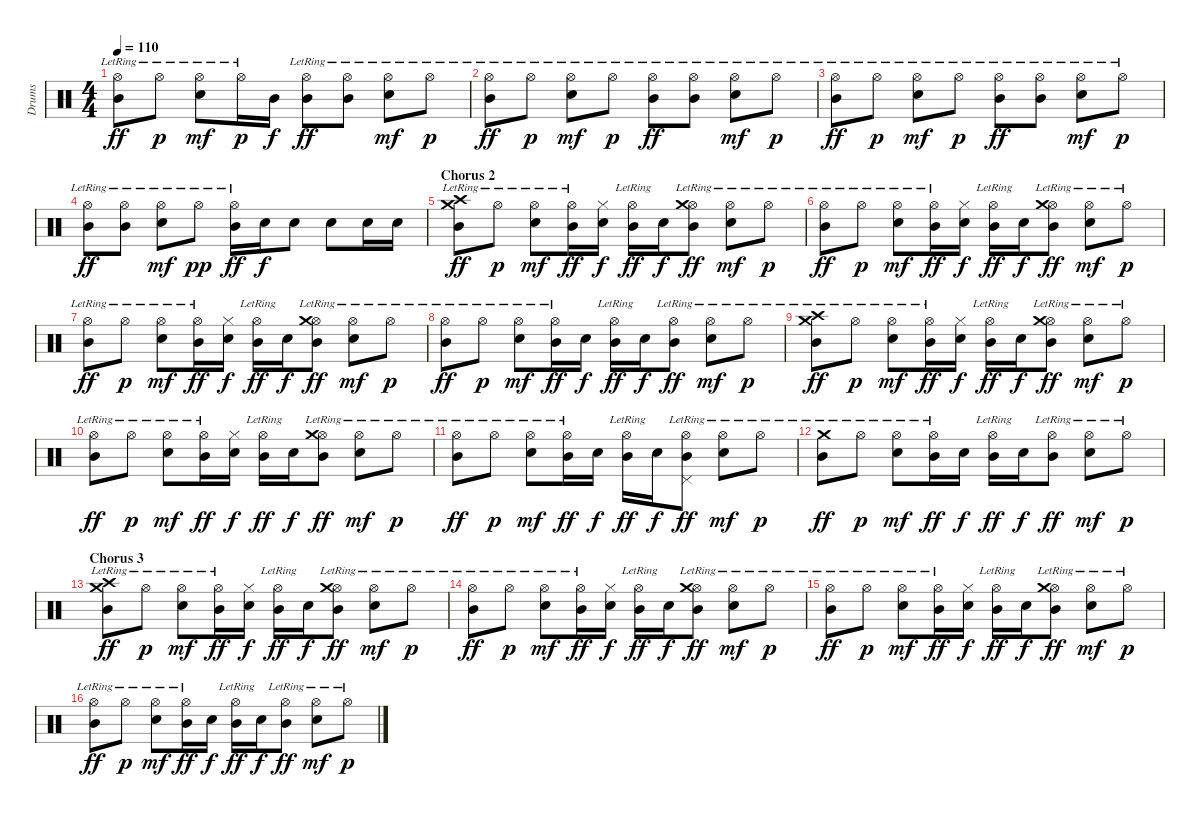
\track ("Drums" "Drums") {instrument percussion}
\staff {score}
\articulation defaults
\ts (4 4)
\tempo 110
\clef neutral
\ks c
("Hi-Hat (open)"{lr} "Mid Tom (hit)").8{dy ff} "Hi-Hat (open)"{lr}.8{dy p} ("Hi-Hat (open)"{lr} "Electric Snare (hit)").8{dy mf} "Hi-Hat (open)"{lr}.16{dy p} "Mid Tom (hit)".16{dy f} ("Hi-Hat (open)"{lr} "Mid Tom (hit)").8{dy ff} ("Hi-Hat (open)"{lr} "Mid Tom (hit)").8 ("Hi-Hat (open)"{lr} "Electric Snare (hit)").8{dy mf} "Hi-Hat (open)"{lr}.8{dy p} |
("Hi-Hat (open)"{lr} "Mid Tom (hit)").8{dy ff} "Hi-Hat (open)"{lr}.8{dy p} ("Hi-Hat (open)"{lr} "Electric Snare (hit)").8{dy mf} "Hi-Hat (open)"{lr}.8{dy p} ("Hi-Hat (open)"{lr} "Mid Tom (hit)").8{dy ff} ("Hi-Hat (open)"{lr} "Mid Tom (hit)").8 ("Hi-Hat (open)"{lr} "Electric Snare (hit)").8{dy mf} "Hi-Hat (open)"{lr}.8{dy p} |
("Hi-Hat (open)"{lr} "Mid Tom (hit)").8{dy ff} "Hi-Hat (open)"{lr}.8{dy p} ("Hi-Hat (open)"{lr} "Electric Snare (hit)").8{dy mf} "Hi-Hat (open)"{lr}.8{dy p} ("Hi-Hat (open)"{lr} "Mid Tom (hit)").8{dy ff} ("Hi-Hat (open)"{lr} "Mid Tom (hit)").8 ("Hi-Hat (open)"{lr} "Electric Snare (hit)").8{dy mf} "Hi-Hat (open)"{lr}.8{dy p} |
("Hi-Hat (open)"{lr} "Mid Tom (hit)").8{dy ff} ("Hi-Hat (open)"{lr} "Mid Tom (hit)").8 ("Hi-Hat (open)"{lr} "Electric Snare (hit)").8{dy mf} "Hi-Hat (open)"{lr}.8{dy pp} ("Hi-Hat (open)"{lr} "Mid Tom (hit)").16{dy ff} "Electric Snare (hit)".16{dy f} "Electric Snare (hit)".8 "Electric Snare (hit)".8 "Electric Snare (hit)".16 "Electric Snare (hit)".16 |
\section ("" "Chorus 2")
("Crash medium (hit)"{lr} "Crash high (hit)"{lr} "Mid Tom (hit)").8{dy ff} "Hi-Hat (open)"{lr}.8{dy p} ("Hi-Hat (open)"{lr} "Electric Snare (hit)").8{dy mf} ("Hi-Hat (open)"{lr} "Mid Tom (hit)").16{dy ff} ("Hi-Hat (closed)" "Electric Snare (hit)").16{dy f} ("Hi-Hat (open)"{lr} "Mid Tom (hit)").16{dy ff} "Electric Snare (hit)".16{dy f} ("Hi-Hat (open)"{lr} "Crash medium (hit)"{lr} "Mid Tom (hit)").8{dy ff} ("Hi-Hat (open)"{lr} "Electric Snare (hit)").8{dy mf} "Hi-Hat (open)"{lr}.8{dy p} |
("Hi-Hat (open)"{lr} "Mid Tom (hit)").8{dy ff} "Hi-Hat (open)"{lr}.8{dy p} ("Hi-Hat (open)"{lr} "Electric Snare (hit)").8{dy mf} ("Hi-Hat (open)"{lr} "Mid Tom (hit)").16{dy ff} ("Hi-Hat (closed)" "Electric Snare (hit)").16{dy f} ("Hi-Hat (open)"{lr} "Mid Tom (hit)").16{dy ff} "Electric Snare (hit)".16{dy f} ("Hi-Hat (open)"{lr} "Crash medium (hit)"{lr} "Mid Tom (hit)").8{dy ff} ("Hi-Hat (open)"{lr} "Electric Snare (hit)").8{dy mf} "Hi-Hat (open)"{lr}.8{dy p} |
("Hi-Hat (open)"{lr} "Mid Tom (hit)").8{dy ff} "Hi-Hat (open)"{lr}.8{dy p} ("Hi-Hat (open)"{lr} "Electric Snare (hit)").8{dy mf} ("Hi-Hat (open)"{lr} "Mid Tom (hit)").16{dy ff} ("Hi-Hat (closed)" "Electric Snare (hit)").16{dy f} ("Hi-Hat (open)"{lr} "Mid Tom (hit)").16{dy ff} "Electric Snare (hit)".16{dy f} ("Hi-Hat (open)"{lr} "Crash medium (hit)"{lr} "Mid Tom (hit)").8{dy ff} ("Hi-Hat (open)"{lr} "Electric Snare (hit)").8{dy mf} "Hi-Hat (open)"{lr}.8{dy p} |
("Hi-Hat (open)"{lr} "Mid Tom (hit)").8{dy ff} "Hi-Hat (open)"{lr}.8{dy p} ("Hi-Hat (open)"{lr} "Electric Snare (hit)").8{dy mf} ("Hi-Hat (open)"{lr} "Mid Tom (hit)").16{dy ff} "Electric Snare (hit)".16{dy f} ("Hi-Hat (open)"{lr} "Mid Tom (hit)").16{dy ff} "Electric Snare (hit)".16{dy f} ("Hi-Hat (open)"{lr} "Mid Tom (hit)").8{dy ff} ("Hi-Hat (open)"{lr} "Electric Snare (hit)").8{dy mf} "Hi-Hat (open)"{lr}.8{dy p} |
("Crash medium (hit)"{lr} "Crash high (hit)"{lr} "Mid Tom (hit)").8{dy ff} "Hi-Hat (open)"{lr}.8{dy p} ("Hi-Hat (open)"{lr} "Electric Snare (hit)").8{dy mf} ("Hi-Hat (open)"{lr} "Mid Tom (hit)").16{dy ff} ("Hi-Hat (closed)" "Electric Snare (hit)").16{dy f} ("Hi-Hat (open)"{lr} "Mid Tom (hit)").16{dy ff} "Electric Snare (hit)".16{dy f} ("Hi-Hat (open)"{lr} "Crash medium (hit)"{lr} "Mid Tom (hit)").8{dy ff} ("Hi-Hat (open)"{lr} "Electric Snare (hit)").8{dy mf} "Hi-Hat (open)"{lr}.8{dy p} |
("Hi-Hat (open)"{lr} "Mid Tom (hit)").8{dy ff} "Hi-Hat (open)"{lr}.8{dy p} ("Hi-Hat (open)"{lr} "Electric Snare (hit)").8{dy mf} ("Hi-Hat (open)"{lr} "Mid Tom (hit)").16{dy ff} ("Hi-Hat (closed)" "Electric Snare (hit)").16{dy f} ("Hi-Hat (open)"{lr} "Mid Tom (hit)").16{dy ff} "Electric Snare (hit)".16{dy f} ("Hi-Hat (open)"{lr} "Crash medium (hit)"{lr} "Mid Tom (hit)").8{dy ff} ("Hi-Hat (open)"{lr} "Electric Snare (hit)").8{dy mf} "Hi-Hat (open)"{lr}.8{dy p} |
("Hi-Hat (open)"{lr} "Mid Tom (hit)").8{dy ff} "Hi-Hat (open)"{lr}.8{dy p} ("Hi-Hat (open)"{lr} "Electric Snare (hit)").8{dy mf} ("Hi-Hat (open)"{lr} "Mid Tom (hit)").16{dy ff} "Electric Snare (hit)".16{dy f} ("Hi-Hat (open)"{lr} "Mid Tom (hit)").16{dy ff} "Electric Snare (hit)".16{dy f} ("Hi-Hat (open)"{lr} "Pedal Hi-Hat (hit)" "Mid Tom (hit)").8{dy ff} ("Hi-Hat (open)"{lr} "Electric Snare (hit)").8{dy mf} "Hi-Hat (open)"{lr}.8{dy p} |
("Crash medium (hit)"{lr} "Mid Tom (hit)").8{dy ff} "Hi-Hat (open)"{lr}.8{dy p} ("Hi-Hat (open)"{lr} "Electric Snare (hit)").8{dy mf} ("Hi-Hat (open)"{lr} "Mid Tom (hit)").16{dy ff} "Electric Snare (hit)".16{dy f} ("Hi-Hat (open)"{lr} "Mid Tom (hit)").16{dy ff} "Electric Snare (hit)".16{dy f} ("Hi-Hat (open)"{lr} "Mid Tom (hit)").8{dy ff} ("Hi-Hat (open)"{lr} "Electric Snare (hit)").8{dy mf} "Hi-Hat (open)"{lr}.8{dy p} |
\section ("" "Chorus 3")
("Crash medium (hit)"{lr} "Crash high (hit)"{lr} "Mid Tom (hit)").8{dy ff} "Hi-Hat (open)"{lr}.8{dy p} ("Hi-Hat (open)"{lr} "Electric Snare (hit)").8{dy mf} ("Hi-Hat (open)"{lr} "Mid Tom (hit)").16{dy ff} ("Hi-Hat (closed)" "Electric Snare (hit)").16{dy f} ("Hi-Hat (open)"{lr} "Mid Tom (hit)").16{dy ff} "Electric Snare (hit)".16{dy f} ("Hi-Hat (open)"{lr} "Crash medium (hit)"{lr} "Mid Tom (hit)").8{dy ff} ("Hi-Hat (open)"{lr} "Electric Snare (hit)").8{dy mf} "Hi-Hat (open)"{lr}.8{dy p} |
("Hi-Hat (open)"{lr} "Mid Tom (hit)").8{dy ff} "Hi-Hat (open)"{lr}.8{dy p} ("Hi-Hat (open)"{lr} "Electric Snare (hit)").8{dy mf} ("Hi-Hat (open)"{lr} "Mid Tom (hit)").16{dy ff} ("Hi-Hat (closed)" "Electric Snare (hit)").16{dy f} ("Hi-Hat (open)"{lr} "Mid Tom (hit)").16{dy ff} "Electric Snare (hit)".16{dy f} ("Hi-Hat (open)"{lr} "Crash medium (hit)"{lr} "Mid Tom (hit)").8{dy ff} ("Hi-Hat (open)"{lr} "Electric Snare (hit)").8{dy mf} "Hi-Hat (open)"{lr}.8{dy p} |
("Hi-Hat (open)"{lr} "Mid Tom (hit)").8{dy ff} "Hi-Hat (open)"{lr}.8{dy p} ("Hi-Hat (open)"{lr} "Electric Snare (hit)").8{dy mf} ("Hi-Hat (open)"{lr} "Mid Tom (hit)").16{dy ff} ("Hi-Hat (closed)" "Electric Snare (hit)").16{dy f} ("Hi-Hat (open)"{lr} "Mid Tom (hit)").16{dy ff} "Electric Snare (hit)".16{dy f} ("Hi-Hat (open)"{lr} "Crash medium (hit)"{lr} "Mid Tom (hit)").8{dy ff} ("Hi-Hat (open)"{lr} "Electric Snare (hit)").8{dy mf} "Hi-Hat (open)"{lr}.8{dy p} |
("Hi-Hat (open)"{lr} "Mid Tom (hit)").8{dy ff} "Hi-Hat (open)"{lr}.8{dy p} ("Hi-Hat (open)"{lr} "Electric Snare (hit)").8{dy mf} ("Hi-Hat (open)"{lr} "Mid Tom (hit)").16{dy ff} "Electric Snare (hit)".16{dy f} ("Hi-Hat (open)"{lr} "Mid Tom (hit)").16{dy ff} "Electric Snare (hit)".16{dy f} ("Hi-Hat (open)"{lr} "Mid Tom (hit)").8{dy ff} ("Hi-Hat (open)"{lr} "Electric Snare (hit)").8{dy mf} "Hi-Hat (open)"{lr}.8{dy p}
